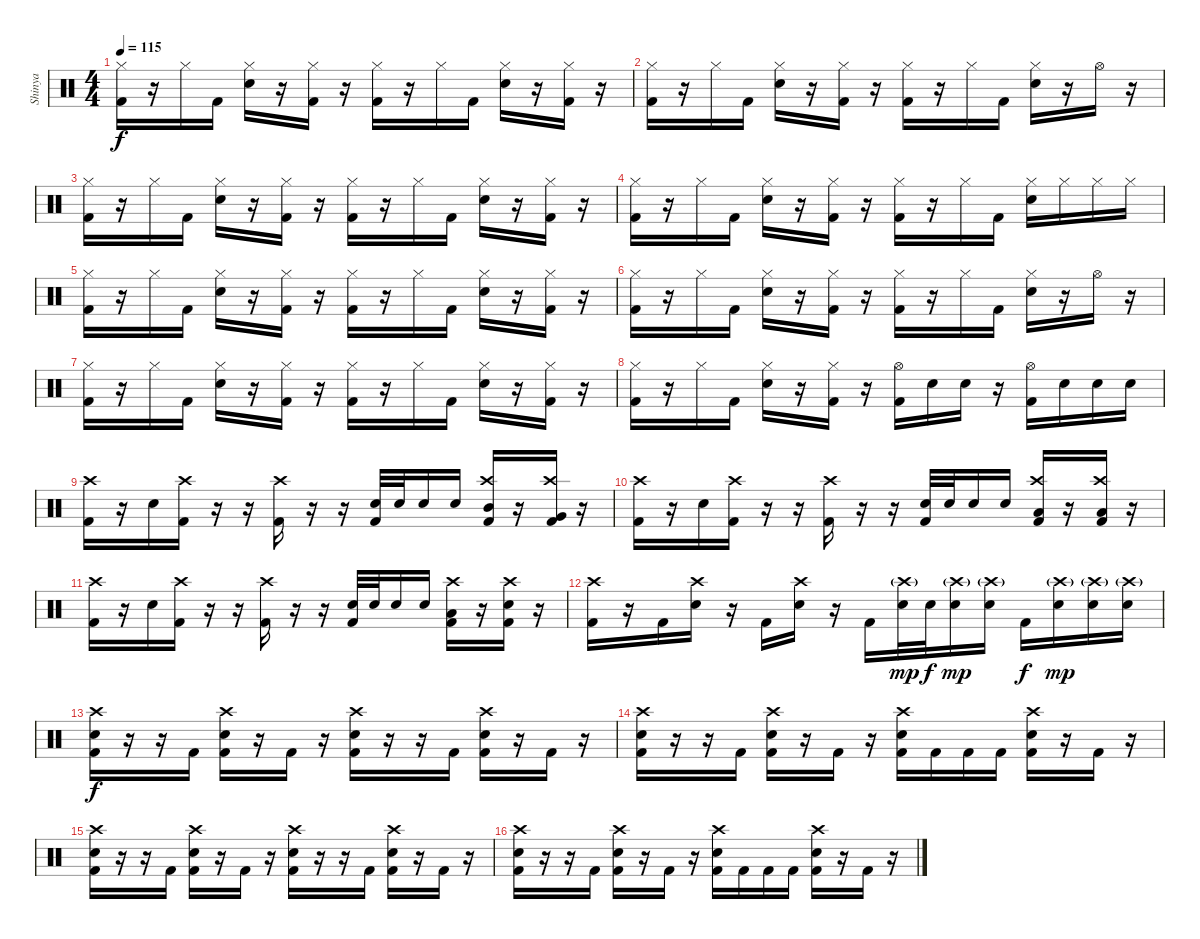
\track ("Shinya" "Shinya") {instrument percussion}
\staff {score}
\articulation defaults
\ts (4 4)
\tempo 115
\clef neutral
\ks c
("Hi-Hat (closed)" "Kick (hit) 2").16{dy f} r.16 "Hi-Hat (closed)".16 "Kick (hit) 2".16 ("Hi-Hat (closed)" "Electric Snare (hit)").16 r.16 ("Hi-Hat (closed)" "Kick (hit) 2").16 r.16 ("Hi-Hat (closed)" "Kick (hit) 2").16 r.16 "Hi-Hat (closed)".16 "Kick (hit) 2".16 ("Hi-Hat (closed)" "Electric Snare (hit)").16 r.16 ("Hi-Hat (closed)" "Kick (hit) 2").16 r.16 |
("Hi-Hat (closed)" "Kick (hit) 2").16 r.16 "Hi-Hat (closed)".16 "Kick (hit) 2".16 ("Hi-Hat (closed)" "Electric Snare (hit)").16 r.16 ("Hi-Hat (closed)" "Kick (hit) 2").16 r.16 ("Hi-Hat (closed)" "Kick (hit) 2").16 r.16 "Hi-Hat (closed)".16 "Kick (hit) 2".16 ("Hi-Hat (closed)" "Electric Snare (hit)").16 r.16 "Hi-Hat (open)".16 r.16 |
("Hi-Hat (closed)" "Kick (hit) 2").16 r.16 "Hi-Hat (closed)".16 "Kick (hit) 2".16 ("Hi-Hat (closed)" "Electric Snare (hit)").16 r.16 ("Hi-Hat (closed)" "Kick (hit) 2").16 r.16 ("Hi-Hat (closed)" "Kick (hit) 2").16 r.16 "Hi-Hat (closed)".16 "Kick (hit) 2".16 ("Hi-Hat (closed)" "Electric Snare (hit)").16 r.16 ("Hi-Hat (closed)" "Kick (hit) 2").16 r.16 |
("Hi-Hat (closed)" "Kick (hit) 2").16 r.16 "Hi-Hat (closed)".16 "Kick (hit) 2".16 ("Hi-Hat (closed)" "Electric Snare (hit)").16 r.16 ("Hi-Hat (closed)" "Kick (hit) 2").16 r.16 ("Hi-Hat (closed)" "Kick (hit) 2").16 r.16 "Hi-Hat (closed)".16 "Kick (hit) 2".16 ("Hi-Hat (closed)" "Electric Snare (hit)").16 "Hi-Hat (closed)".16 "Hi-Hat (closed)".16 "Hi-Hat (closed)".16 |
("Hi-Hat (closed)" "Kick (hit) 2").16 r.16 "Hi-Hat (closed)".16 "Kick (hit) 2".16 ("Hi-Hat (closed)" "Electric Snare (hit)").16 r.16 ("Hi-Hat (closed)" "Kick (hit) 2").16 r.16 ("Hi-Hat (closed)" "Kick (hit) 2").16 r.16 "Hi-Hat (closed)".16 "Kick (hit) 2".16 ("Hi-Hat (closed)" "Electric Snare (hit)").16 r.16 ("Hi-Hat (closed)" "Kick (hit) 2").16 r.16 |
("Hi-Hat (closed)" "Kick (hit) 2").16 r.16 "Hi-Hat (closed)".16 "Kick (hit) 2".16 ("Hi-Hat (closed)" "Electric Snare (hit)").16 r.16 ("Hi-Hat (closed)" "Kick (hit) 2").16 r.16 ("Hi-Hat (closed)" "Kick (hit) 2").16 r.16 "Hi-Hat (closed)".16 "Kick (hit) 2".16 ("Hi-Hat (closed)" "Electric Snare (hit)").16 r.16 "Hi-Hat (open)".16 r.16 |
("Hi-Hat (closed)" "Kick (hit) 2").16 r.16 "Hi-Hat (closed)".16 "Kick (hit) 2".16 ("Hi-Hat (closed)" "Electric Snare (hit)").16 r.16 ("Hi-Hat (closed)" "Kick (hit) 2").16 r.16 ("Hi-Hat (closed)" "Kick (hit) 2").16 r.16 "Hi-Hat (closed)".16 "Kick (hit) 2".16 ("Hi-Hat (closed)" "Electric Snare (hit)").16 r.16 ("Hi-Hat (closed)" "Kick (hit) 2").16 r.16 |
("Hi-Hat (closed)" "Kick (hit) 2").16 r.16 "Hi-Hat (closed)".16 "Kick (hit) 2".16 ("Hi-Hat (closed)" "Electric Snare (hit)").16 r.16 ("Hi-Hat (closed)" "Kick (hit) 2").16 r.16 ("Hi-Hat (open)" "Kick (hit) 2").16 "Electric Snare (hit)".16 "Electric Snare (hit)".16 r.16 ("Hi-Hat (open)" "Kick (hit) 2").16 "Electric Snare (hit)".16 "Electric Snare (hit)".16 "Electric Snare (hit)".16 |
("Crash high (hit)" "Kick (hit) 2").16 r.16 "Electric Snare (hit)".16 ("Crash high (hit)" "Kick (hit) 2").16 r.16 r.16 ("Crash high (hit)" "Kick (hit) 2").16 r.16 r.16 ("Electric Snare (hit)" "Kick (hit) 2").32 "Electric Snare (hit)".32 "Electric Snare (hit)".16 "Electric Snare (hit)".16 ("Crash high (hit)" "Mid Tom (hit)" "Kick (hit) 2").16 r.16 ("Crash high (hit)" "Very Low Tom (hit)" "Kick (hit) 2").16 r.16 |
("Crash high (hit)" "Kick (hit) 2").16 r.16 "Electric Snare (hit)".16 ("Crash high (hit)" "Kick (hit) 2").16 r.16 r.16 ("Crash high (hit)" "Kick (hit) 2").16 r.16 r.16 ("Electric Snare (hit)" "Kick (hit) 2").32 "Electric Snare (hit)".32 "Electric Snare (hit)".16 "Electric Snare (hit)".16 ("Crash high (hit)" "Low Tom (hit)" "Kick (hit) 2").16 r.16 ("Crash high (hit)" "Low Tom (hit)" "Kick (hit) 2").16 r.16 |
("Crash high (hit)" "Kick (hit) 2").16 r.16 "Electric Snare (hit)".16 ("Crash high (hit)" "Kick (hit) 2").16 r.16 r.16 ("Crash high (hit)" "Kick (hit) 2").16 r.16 r.16 ("Electric Snare (hit)" "Kick (hit) 2").32 "Electric Snare (hit)".32 "Electric Snare (hit)".16 "Electric Snare (hit)".16 ("Crash high (hit)" "Low Tom (hit)" "Kick (hit) 2").16 r.16 ("Crash high (hit)" "Electric Snare (hit)" "Kick (hit) 2").16 r.16 |
("Crash high (hit)" "Kick (hit) 2").16 r.16 "Kick (hit) 2".16 ("Crash high (hit)" "Electric Snare (hit)").16 r.16 "Kick (hit) 2".16 ("Crash high (hit)" "Electric Snare (hit)").16 r.16 "Kick (hit) 2".16 ("Crash high (hit)"{g} "Electric Snare (hit)").32{dy mp} "Electric Snare (hit)".32{dy f} ("Crash high (hit)"{g} "Electric Snare (hit)").16{dy mp} ("Crash high (hit)"{g} "Electric Snare (hit)").16 "Kick (hit) 2".16{dy f} ("Crash high (hit)"{g} "Electric Snare (hit)").16{dy mp} ("Crash high (hit)"{g} "Electric Snare (hit)").16 ("Crash high (hit)"{g} "Electric Snare (hit)").16 |
("Crash high (hit)" "Electric Snare (hit)" "Kick (hit) 2").16{dy f} r.16 r.16 "Kick (hit) 2".16 ("Crash high (hit)" "Electric Snare (hit)" "Kick (hit) 2").16 r.16 "Kick (hit) 2".16 r.16 ("Crash high (hit)" "Electric Snare (hit)" "Kick (hit) 2").16 r.16 r.16 "Kick (hit) 2".16 ("Crash high (hit)" "Electric Snare (hit)" "Kick (hit) 2").16 r.16 "Kick (hit) 2".16 r.16 |
("Crash high (hit)" "Electric Snare (hit)" "Kick (hit) 2").16 r.16 r.16 "Kick (hit) 2".16 ("Crash high (hit)" "Electric Snare (hit)" "Kick (hit) 2").16 r.16 "Kick (hit) 2".16 r.16 ("Crash high (hit)" "Electric Snare (hit)" "Kick (hit) 2").16 "Kick (hit) 2".16 "Kick (hit) 2".16 "Kick (hit) 2".16 ("Crash high (hit)" "Electric Snare (hit)" "Kick (hit) 2").16 r.16 "Kick (hit) 2".16 r.16 |
("Crash high (hit)" "Electric Snare (hit)" "Kick (hit) 2").16 r.16 r.16 "Kick (hit) 2".16 ("Crash high (hit)" "Electric Snare (hit)" "Kick (hit) 2").16 r.16 "Kick (hit) 2".16 r.16 ("Crash high (hit)" "Electric Snare (hit)" "Kick (hit) 2").16 r.16 r.16 "Kick (hit) 2".16 ("Crash high (hit)" "Electric Snare (hit)" "Kick (hit) 2").16 r.16 "Kick (hit) 2".16 r.16 |
("Crash high (hit)" "Electric Snare (hit)" "Kick (hit) 2").16 r.16 r.16 "Kick (hit) 2".16 ("Crash high (hit)" "Electric Snare (hit)" "Kick (hit) 2").16 r.16 "Kick (hit) 2".16 r.16 ("Crash high (hit)" "Electric Snare (hit)" "Kick (hit) 2").16 "Kick (hit) 2".16 "Kick (hit) 2".16 "Kick (hit) 2".16 ("Crash high (hit)" "Electric Snare (hit)" "Kick (hit) 2").16 r.16 "Kick (hit) 2".16 r.16
